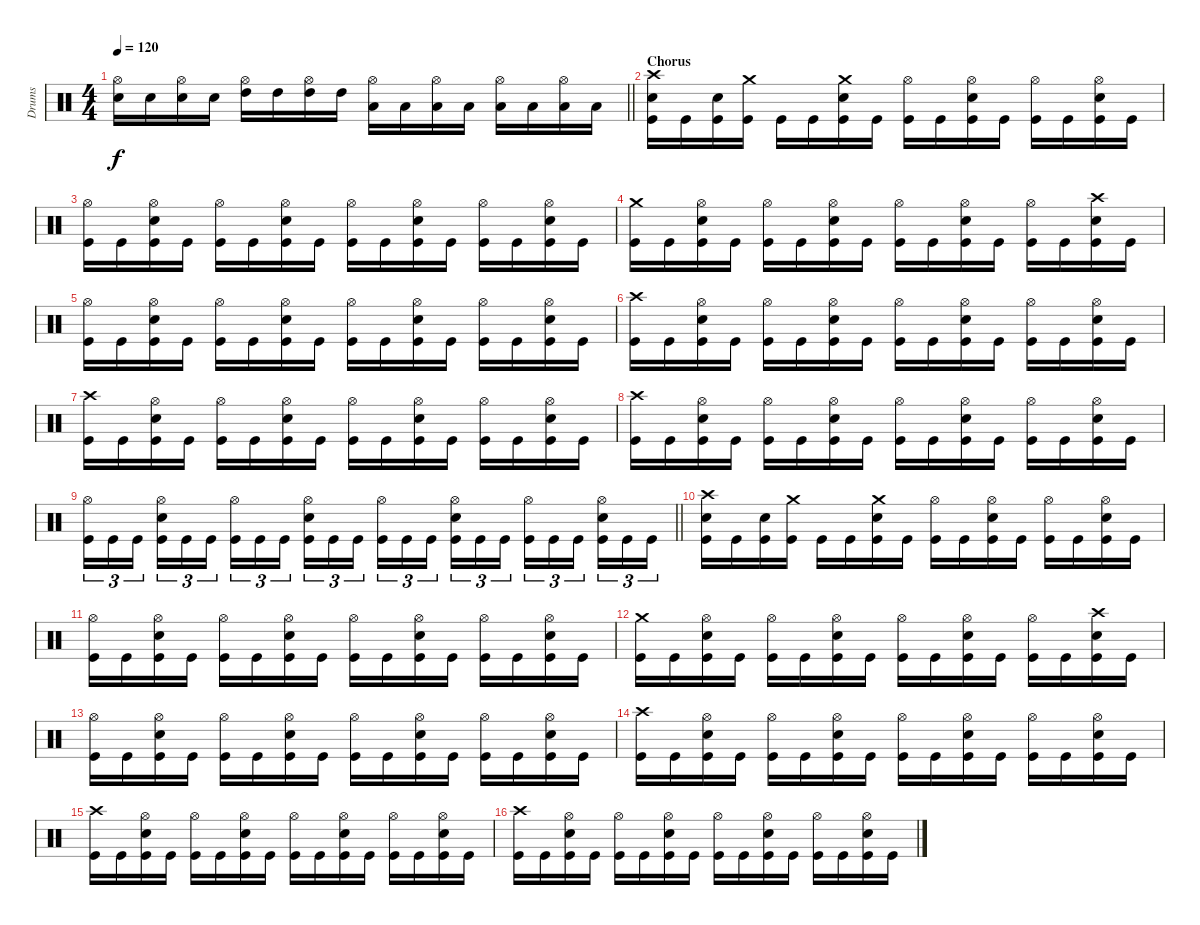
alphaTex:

\track ("Drums" "Drums") {instrument percussion}
\staff {score}
\articulation defaults
\ts (4 4)
\tempo 120
\clef neutral
\barLineRight lightlight
\ks c
("Hi-Hat (open)" "Electric Snare (hit)").16{dy f} "Electric Snare (hit)".16 ("Hi-Hat (open)" "Electric Snare (hit)").16 "Electric Snare (hit)".16 ("Hi-Hat (open)" "High Tom (hit)").16 "High Tom (hit)".16 ("Hi-Hat (open)" "High Tom (hit)").16 "High Tom (hit)".16 ("Hi-Hat (open)" "Low Tom (hit)").16 "Low Tom (hit)".16 ("Hi-Hat (open)" "Low Tom (hit)").16 "Low Tom (hit)".16 ("Hi-Hat (open)" "Low Floor Tom (hit)").16 "Low Floor Tom (hit)".16 ("Hi-Hat (open)" "Low Floor Tom (hit)").16 "Low Floor Tom (hit)".16 |
\section ("" "Chorus")
("Crash high (hit)" "Electric Snare (hit)" "Kick (hit)").16 "Kick (hit)".16 ("Electric Snare (hit)" "Kick (hit)").16 ("Crash medium (hit)" "Kick (hit)").16 "Kick (hit)".16 "Kick (hit)".16 ("Crash medium (hit)" "Electric Snare (hit)" "Kick (hit)").16 "Kick (hit)".16 ("Hi-Hat (open)" "Kick (hit)").16 "Kick (hit)".16 ("Hi-Hat (open)" "Electric Snare (hit)" "Kick (hit)").16 "Kick (hit)".16 ("Hi-Hat (open)" "Kick (hit)").16 "Kick (hit)".16 ("Hi-Hat (open)" "Electric Snare (hit)" "Kick (hit)").16 "Kick (hit)".16 |
("Hi-Hat (open)" "Kick (hit)").16 "Kick (hit)".16 ("Hi-Hat (open)" "Electric Snare (hit)" "Kick (hit)").16 "Kick (hit)".16 ("Hi-Hat (open)" "Kick (hit)").16 "Kick (hit)".16 ("Hi-Hat (open)" "Electric Snare (hit)" "Kick (hit)").16 "Kick (hit)".16 ("Hi-Hat (open)" "Kick (hit)").16 "Kick (hit)".16 ("Hi-Hat (open)" "Electric Snare (hit)" "Kick (hit)").16 "Kick (hit)".16 ("Hi-Hat (open)" "Kick (hit)").16 "Kick (hit)".16 ("Hi-Hat (open)" "Electric Snare (hit)" "Kick (hit)").16 "Kick (hit)".16 |
("Crash medium (hit)" "Kick (hit)").16 "Kick (hit)".16 ("Hi-Hat (open)" "Electric Snare (hit)" "Kick (hit)").16 "Kick (hit)".16 ("Hi-Hat (open)" "Kick (hit)").16 "Kick (hit)".16 ("Hi-Hat (open)" "Electric Snare (hit)" "Kick (hit)").16 "Kick (hit)".16 ("Hi-Hat (open)" "Kick (hit)").16 "Kick (hit)".16 ("Hi-Hat (open)" "Electric Snare (hit)" "Kick (hit)").16 "Kick (hit)".16 ("Hi-Hat (open)" "Kick (hit)").16 "Kick (hit)".16 ("Crash high (hit)" "Electric Snare (hit)" "Kick (hit)").16 "Kick (hit)".16 |
("Hi-Hat (open)" "Kick (hit)").16 "Kick (hit)".16 ("Hi-Hat (open)" "Electric Snare (hit)" "Kick (hit)").16 "Kick (hit)".16 ("Hi-Hat (open)" "Kick (hit)").16 "Kick (hit)".16 ("Hi-Hat (open)" "Electric Snare (hit)" "Kick (hit)").16 "Kick (hit)".16 ("Hi-Hat (open)" "Kick (hit)").16 "Kick (hit)".16 ("Hi-Hat (open)" "Electric Snare (hit)" "Kick (hit)").16 "Kick (hit)".16 ("Hi-Hat (open)" "Kick (hit)").16 "Kick (hit)".16 ("Hi-Hat (open)" "Electric Snare (hit)" "Kick (hit)").16 "Kick (hit)".16 |
("Crash high (hit)" "Kick (hit)").16 "Kick (hit)".16 ("Hi-Hat (open)" "Electric Snare (hit)" "Kick (hit)").16 "Kick (hit)".16 ("Hi-Hat (open)" "Kick (hit)").16 "Kick (hit)".16 ("Hi-Hat (open)" "Electric Snare (hit)" "Kick (hit)").16 "Kick (hit)".16 ("Hi-Hat (open)" "Kick (hit)").16 "Kick (hit)".16 ("Hi-Hat (open)" "Electric Snare (hit)" "Kick (hit)").16 "Kick (hit)".16 ("Hi-Hat (open)" "Kick (hit)").16 "Kick (hit)".16 ("Hi-Hat (open)" "Electric Snare (hit)" "Kick (hit)").16 "Kick (hit)".16 |
("Crash high (hit)" "Kick (hit)").16 "Kick (hit)".16 ("Hi-Hat (open)" "Electric Snare (hit)" "Kick (hit)").16 "Kick (hit)".16 ("Hi-Hat (open)" "Kick (hit)").16 "Kick (hit)".16 ("Hi-Hat (open)" "Electric Snare (hit)" "Kick (hit)").16 "Kick (hit)".16 ("Hi-Hat (open)" "Kick (hit)").16 "Kick (hit)".16 ("Hi-Hat (open)" "Electric Snare (hit)" "Kick (hit)").16 "Kick (hit)".16 ("Hi-Hat (open)" "Kick (hit)").16 "Kick (hit)".16 ("Hi-Hat (open)" "Electric Snare (hit)" "Kick (hit)").16 "Kick (hit)".16 |
("Crash high (hit)" "Kick (hit)").16 "Kick (hit)".16 ("Hi-Hat (open)" "Electric Snare (hit)" "Kick (hit)").16 "Kick (hit)".16 ("Hi-Hat (open)" "Kick (hit)").16 "Kick (hit)".16 ("Hi-Hat (open)" "Electric Snare (hit)" "Kick (hit)").16 "Kick (hit)".16 ("Hi-Hat (open)" "Kick (hit)").16 "Kick (hit)".16 ("Hi-Hat (open)" "Electric Snare (hit)" "Kick (hit)").16 "Kick (hit)".16 ("Hi-Hat (open)" "Kick (hit)").16 "Kick (hit)".16 ("Hi-Hat (open)" "Electric Snare (hit)" "Kick (hit)").16 "Kick (hit)".16 |
\barLineRight lightlight
("Hi-Hat (open)" "Kick (hit)").16{tu (3 2)} "Kick (hit)".16{tu (3 2)} "Kick (hit)".16{tu (3 2)} ("Hi-Hat (open)" "Electric Snare (hit)" "Kick (hit)").16{tu (3 2)} "Kick (hit)".16{tu (3 2)} "Kick (hit)".16{tu (3 2)} ("Hi-Hat (open)" "Kick (hit)").16{tu (3 2)} "Kick (hit)".16{tu (3 2)} "Kick (hit)".16{tu (3 2)} ("Hi-Hat (open)" "Electric Snare (hit)" "Kick (hit)").16{tu (3 2)} "Kick (hit)".16{tu (3 2)} "Kick (hit)".16{tu (3 2)} ("Hi-Hat (open)" "Kick (hit)").16{tu (3 2)} "Kick (hit)".16{tu (3 2)} "Kick (hit)".16{tu (3 2)} ("Hi-Hat (open)" "Electric Snare (hit)" "Kick (hit)").16{tu (3 2)} "Kick (hit)".16{tu (3 2)} "Kick (hit)".16{tu (3 2)} ("Hi-Hat (open)" "Kick (hit)").16{tu (3 2)} "Kick (hit)".16{tu (3 2)} "Kick (hit)".16{tu (3 2)} ("Hi-Hat (open)" "Electric Snare (hit)" "Kick (hit)").16{tu (3 2)} "Kick (hit)".16{tu (3 2)} "Kick (hit)".16{tu (3 2)} |
("Crash high (hit)" "Electric Snare (hit)" "Kick (hit)").16 "Kick (hit)".16 ("Electric Snare (hit)" "Kick (hit)").16 ("Crash medium (hit)" "Kick (hit)").16 "Kick (hit)".16 "Kick (hit)".16 ("Crash medium (hit)" "Electric Snare (hit)" "Kick (hit)").16 "Kick (hit)".16 ("Hi-Hat (open)" "Kick (hit)").16 "Kick (hit)".16 ("Hi-Hat (open)" "Electric Snare (hit)" "Kick (hit)").16 "Kick (hit)".16 ("Hi-Hat (open)" "Kick (hit)").16 "Kick (hit)".16 ("Hi-Hat (open)" "Electric Snare (hit)" "Kick (hit)").16 "Kick (hit)".16 |
("Hi-Hat (open)" "Kick (hit)").16 "Kick (hit)".16 ("Hi-Hat (open)" "Electric Snare (hit)" "Kick (hit)").16 "Kick (hit)".16 ("Hi-Hat (open)" "Kick (hit)").16 "Kick (hit)".16 ("Hi-Hat (open)" "Electric Snare (hit)" "Kick (hit)").16 "Kick (hit)".16 ("Hi-Hat (open)" "Kick (hit)").16 "Kick (hit)".16 ("Hi-Hat (open)" "Electric Snare (hit)" "Kick (hit)").16 "Kick (hit)".16 ("Hi-Hat (open)" "Kick (hit)").16 "Kick (hit)".16 ("Hi-Hat (open)" "Electric Snare (hit)" "Kick (hit)").16 "Kick (hit)".16 |
("Crash medium (hit)" "Kick (hit)").16 "Kick (hit)".16 ("Hi-Hat (open)" "Electric Snare (hit)" "Kick (hit)").16 "Kick (hit)".16 ("Hi-Hat (open)" "Kick (hit)").16 "Kick (hit)".16 ("Hi-Hat (open)" "Electric Snare (hit)" "Kick (hit)").16 "Kick (hit)".16 ("Hi-Hat (open)" "Kick (hit)").16 "Kick (hit)".16 ("Hi-Hat (open)" "Electric Snare (hit)" "Kick (hit)").16 "Kick (hit)".16 ("Hi-Hat (open)" "Kick (hit)").16 "Kick (hit)".16 ("Crash high (hit)" "Electric Snare (hit)" "Kick (hit)").16 "Kick (hit)".16 |
("Hi-Hat (open)" "Kick (hit)").16 "Kick (hit)".16 ("Hi-Hat (open)" "Electric Snare (hit)" "Kick (hit)").16 "Kick (hit)".16 ("Hi-Hat (open)" "Kick (hit)").16 "Kick (hit)".16 ("Hi-Hat (open)" "Electric Snare (hit)" "Kick (hit)").16 "Kick (hit)".16 ("Hi-Hat (open)" "Kick (hit)").16 "Kick (hit)".16 ("Hi-Hat (open)" "Electric Snare (hit)" "Kick (hit)").16 "Kick (hit)".16 ("Hi-Hat (open)" "Kick (hit)").16 "Kick (hit)".16 ("Hi-Hat (open)" "Electric Snare (hit)" "Kick (hit)").16 "Kick (hit)".16 |
("Crash high (hit)" "Kick (hit)").16 "Kick (hit)".16 ("Hi-Hat (open)" "Electric Snare (hit)" "Kick (hit)").16 "Kick (hit)".16 ("Hi-Hat (open)" "Kick (hit)").16 "Kick (hit)".16 ("Hi-Hat (open)" "Electric Snare (hit)" "Kick (hit)").16 "Kick (hit)".16 ("Hi-Hat (open)" "Kick (hit)").16 "Kick (hit)".16 ("Hi-Hat (open)" "Electric Snare (hit)" "Kick (hit)").16 "Kick (hit)".16 ("Hi-Hat (open)" "Kick (hit)").16 "Kick (hit)".16 ("Hi-Hat (open)" "Electric Snare (hit)" "Kick (hit)").16 "Kick (hit)".16 |
("Crash high (hit)" "Kick (hit)").16 "Kick (hit)".16 ("Hi-Hat (open)" "Electric Snare (hit)" "Kick (hit)").16 "Kick (hit)".16 ("Hi-Hat (open)" "Kick (hit)").16 "Kick (hit)".16 ("Hi-Hat (open)" "Electric Snare (hit)" "Kick (hit)").16 "Kick (hit)".16 ("Hi-Hat (open)" "Kick (hit)").16 "Kick (hit)".16 ("Hi-Hat (open)" "Electric Snare (hit)" "Kick (hit)").16 "Kick (hit)".16 ("Hi-Hat (open)" "Kick (hit)").16 "Kick (hit)".16 ("Hi-Hat (open)" "Electric Snare (hit)" "Kick (hit)").16 "Kick (hit)".16 |
("Crash high (hit)" "Kick (hit)").16 "Kick (hit)".16 ("Hi-Hat (open)" "Electric Snare (hit)" "Kick (hit)").16 "Kick (hit)".16 ("Hi-Hat (open)" "Kick (hit)").16 "Kick (hit)".16 ("Hi-Hat (open)" "Electric Snare (hit)" "Kick (hit)").16 "Kick (hit)".16 ("Hi-Hat (open)" "Kick (hit)").16 "Kick (hit)".16 ("Hi-Hat (open)" "Electric Snare (hit)" "Kick (hit)").16 "Kick (hit)".16 ("Hi-Hat (open)" "Kick (hit)").16 "Kick (hit)".16 ("Hi-Hat (open)" "Electric Snare (hit)" "Kick (hit)").16 "Kick (hit)".16
